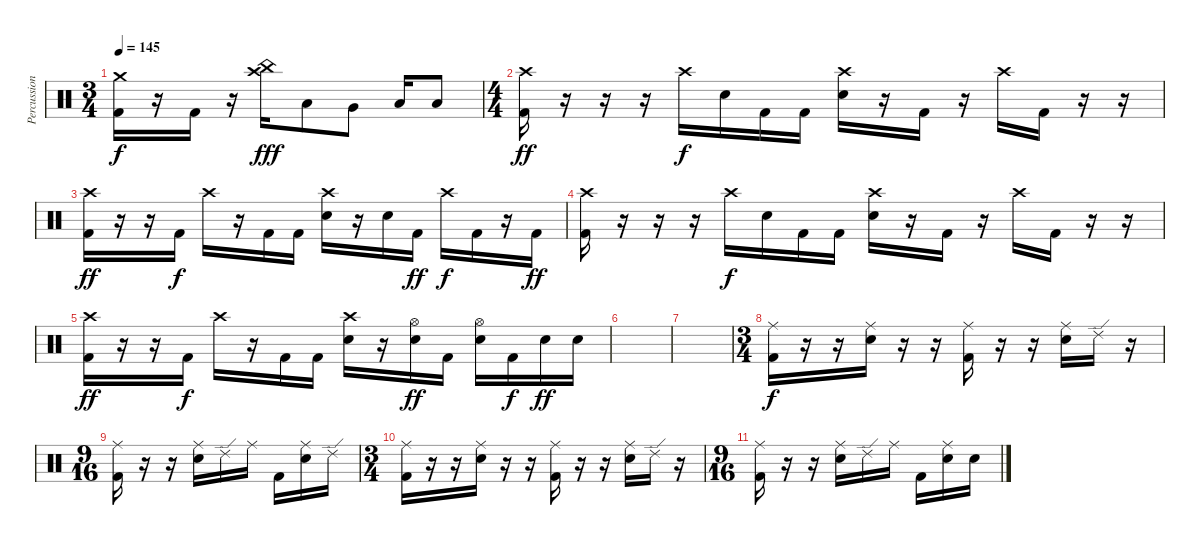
\track ("Percussion" "Percussion") {instrument percussion}
\staff {score}
\articulation defaults
\ts (3 4)
\tempo 145
\clef neutral
\ks c
("Crash medium (hit)" "Kick (hit) 2").16{dy f} r.16 "Kick (hit) 2".16 r.16 ("Crash high (hit)" "China (hit)").16{dy fff} "Low Tom (hit)".8 "Very Low Tom (hit)".8 "Low Floor Tom (hit)".16 "Low Floor Tom (hit)".8 |
\ts (4 4)
("Crash high (hit)" "Kick (hit) 2").16{dy ff} r.16 r.16 r.16 "Crash high (hit)".16{dy f} "Electric Snare (hit)".16 "Kick (hit) 2".16 "Kick (hit) 2".16 ("Crash high (hit)" "Electric Snare (hit)").16 r.16 "Kick (hit) 2".16 r.16 "Crash high (hit)".16 "Kick (hit) 2".16 r.16 r.16 |
("Crash high (hit)" "Kick (hit) 2").16{dy ff} r.16 r.16 "Kick (hit) 2".16{dy f} "Crash high (hit)".16 r.16 "Kick (hit) 2".16 "Kick (hit) 2".16 ("Crash high (hit)" "Electric Snare (hit)").16 r.16 "Electric Snare (hit)".16 "Kick (hit) 2".16{dy ff} "Crash high (hit)".16{dy f} "Kick (hit) 2".16 r.16 "Kick (hit) 2".16{dy ff} |
("Crash high (hit)" "Kick (hit) 2").16 r.16 r.16 r.16 "Crash high (hit)".16{dy f} "Electric Snare (hit)".16 "Kick (hit) 2".16 "Kick (hit) 2".16 ("Crash high (hit)" "Electric Snare (hit)").16 r.16 "Kick (hit) 2".16 r.16 "Crash high (hit)".16 "Kick (hit) 2".16 r.16 r.16 |
("Crash high (hit)" "Kick (hit) 2").16{dy ff} r.16 r.16 "Kick (hit) 2".16{dy f} "Crash high (hit)".16 r.16 "Kick (hit) 2".16 "Kick (hit) 2".16 ("Crash high (hit)" "Electric Snare (hit)").16 r.16 ("Hi-Hat (open)" "Electric Snare (hit)").16{dy ff} "Kick (hit) 2".16 ("Hi-Hat (open)" "Electric Snare (hit)").16 "Kick (hit) 2".16{dy f} "Electric Snare (hit)".16{dy ff} "Electric Snare (hit)".16 |
|
|
\ts (3 4)
("Ride (middle)" "Kick (hit) 2").16{dy f} r.16 r.16 ("Ride (middle)" "Electric Snare (hit)").16 r.16 r.16 ("Ride (middle)" "Kick (hit) 2").16 r.16 r.16 ("Ride (middle)" "Electric Snare (hit)").16 "Ride (edge) 2".16 r.16 |
\ts (9 16)
("Ride (middle)" "Kick (hit) 2").16 r.16 r.16 ("Ride (middle)" "Electric Snare (hit)").16 "Ride (edge) 2".16 "Ride (middle)".16 "Kick (hit) 2".16 ("Ride (middle)" "Electric Snare (hit)").16 "Ride (edge) 2".16 |
\ts (3 4)
("Ride (middle)" "Kick (hit) 2").16 r.16 r.16 ("Ride (middle)" "Electric Snare (hit)").16 r.16 r.16 ("Ride (middle)" "Kick (hit) 2").16 r.16 r.16 ("Ride (middle)" "Electric Snare (hit)").16 "Ride (edge) 2".16 r.16 |
\ts (9 16)
("Ride (middle)" "Kick (hit) 2").16 r.16 r.16 ("Ride (middle)" "Electric Snare (hit)").16 "Ride (edge) 2".16 "Ride (middle)".16 "Kick (hit) 2".16 ("Ride (middle)" "Electric Snare (hit)").16 "Electric Snare (hit)".16
